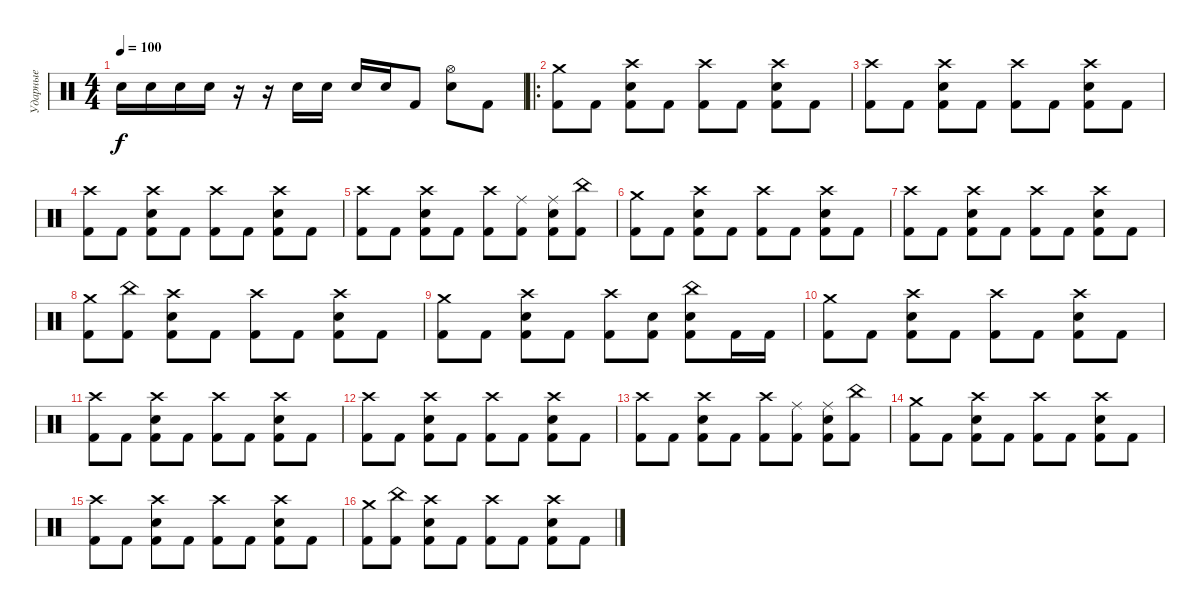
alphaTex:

\track ("Ударные" "Ударные") {instrument percussion}
\staff {score}
\articulation defaults
\ts (4 4)
\tempo 100
\clef neutral
\ks c "Electric Snare (hit)".16{dy f} "Electric Snare (hit)".16 "Electric Snare (hit)".16 "Electric Snare (hit)".16
r.16 r.16 "Electric Snare (hit)".16 "Electric Snare (hit)".16 "Electric Snare (hit)".16 "Electric Snare (hit)".16 "Kick (hit) 2".8 ("Hi-Hat (open)" "Electric Snare (hit)").8 "Kick (hit) 2".8 |
\ro
("Crash medium (hit)" "Kick (hit) 2").8 "Kick (hit) 2".8 ("Crash high (hit)" "Electric Snare (hit)" "Kick (hit) 2").8 "Kick (hit) 2".8 ("Crash high (hit)" "Kick (hit) 2").8 "Kick (hit) 2".8 ("Crash high (hit)" "Electric Snare (hit)" "Kick (hit) 2").8 "Kick (hit) 2".8 |
("Crash high (hit)" "Kick (hit) 2").8 "Kick (hit) 2".8 ("Crash high (hit)" "Electric Snare (hit)" "Kick (hit) 2").8 "Kick (hit) 2".8 ("Crash high (hit)" "Kick (hit) 2").8 "Kick (hit) 2".8 ("Crash high (hit)" "Electric Snare (hit)" "Kick (hit) 2").8 "Kick (hit) 2".8 |
("Crash high (hit)" "Kick (hit) 2").8 "Kick (hit) 2".8 ("Crash high (hit)" "Electric Snare (hit)" "Kick (hit) 2").8 "Kick (hit) 2".8 ("Crash high (hit)" "Kick (hit) 2").8 "Kick (hit) 2".8 ("Crash high (hit)" "Electric Snare (hit)" "Kick (hit) 2").8 "Kick (hit) 2".8 |
("Crash high (hit)" "Kick (hit) 2").8 "Kick (hit) 2".8 ("Crash high (hit)" "Electric Snare (hit)" "Kick (hit) 2").8 "Kick (hit) 2".8 ("Crash high (hit)" "Kick (hit) 2").8 ("Ride (middle)" "Kick (hit) 2").8 ("Ride (middle)" "Electric Snare (hit)" "Kick (hit) 2").8 ("China (hit)" "Kick (hit) 2").8 |
("Crash medium (hit)" "Kick (hit) 2").8 "Kick (hit) 2".8 ("Crash high (hit)" "Electric Snare (hit)" "Kick (hit) 2").8 "Kick (hit) 2".8 ("Crash high (hit)" "Kick (hit) 2").8 "Kick (hit) 2".8 ("Crash high (hit)" "Electric Snare (hit)" "Kick (hit) 2").8 "Kick (hit) 2".8 |
("Crash high (hit)" "Kick (hit) 2").8 "Kick (hit) 2".8 ("Crash high (hit)" "Electric Snare (hit)" "Kick (hit) 2").8 "Kick (hit) 2".8 ("Crash high (hit)" "Kick (hit) 2").8 "Kick (hit) 2".8 ("Crash high (hit)" "Electric Snare (hit)" "Kick (hit) 2").8 "Kick (hit) 2".8 |
("Crash medium (hit)" "Kick (hit) 2").8 ("China (hit)" "Kick (hit) 2").8 ("Crash high (hit)" "Electric Snare (hit)" "Kick (hit) 2").8 "Kick (hit) 2".8 ("Crash high (hit)" "Kick (hit) 2").8 "Kick (hit) 2".8 ("Crash high (hit)" "Electric Snare (hit)" "Kick (hit) 2").8 "Kick (hit) 2".8 |
("Crash medium (hit)" "Kick (hit) 2").8 "Kick (hit) 2".8 ("Crash high (hit)" "Electric Snare (hit)" "Kick (hit) 2").8 "Kick (hit) 2".8 ("Crash high (hit)" "Kick (hit) 2").8 ("Electric Snare (hit)" "Kick (hit) 2").8 ("China (hit)" "Electric Snare (hit)" "Kick (hit) 2").8 "Kick (hit) 2".16 "Kick (hit) 2".16 |
("Crash medium (hit)" "Kick (hit) 2").8 "Kick (hit) 2".8 ("Crash high (hit)" "Electric Snare (hit)" "Kick (hit) 2").8 "Kick (hit) 2".8 ("Crash high (hit)" "Kick (hit) 2").8 "Kick (hit) 2".8 ("Crash high (hit)" "Electric Snare (hit)" "Kick (hit) 2").8 "Kick (hit) 2".8 |
("Crash high (hit)" "Kick (hit) 2").8 "Kick (hit) 2".8 ("Crash high (hit)" "Electric Snare (hit)" "Kick (hit) 2").8 "Kick (hit) 2".8 ("Crash high (hit)" "Kick (hit) 2").8 "Kick (hit) 2".8 ("Crash high (hit)" "Electric Snare (hit)" "Kick (hit) 2").8 "Kick (hit) 2".8 |
("Crash high (hit)" "Kick (hit) 2").8 "Kick (hit) 2".8 ("Crash high (hit)" "Electric Snare (hit)" "Kick (hit) 2").8 "Kick (hit) 2".8 ("Crash high (hit)" "Kick (hit) 2").8 "Kick (hit) 2".8 ("Crash high (hit)" "Electric Snare (hit)" "Kick (hit) 2").8 "Kick (hit) 2".8 |
("Crash high (hit)" "Kick (hit) 2").8 "Kick (hit) 2".8 ("Crash high (hit)" "Electric Snare (hit)" "Kick (hit) 2").8 "Kick (hit) 2".8 ("Crash high (hit)" "Kick (hit) 2").8 ("Ride (middle)" "Kick (hit) 2").8 ("Ride (middle)" "Electric Snare (hit)" "Kick (hit) 2").8 ("China (hit)" "Kick (hit) 2").8 |
("Crash medium (hit)" "Kick (hit) 2").8 "Kick (hit) 2".8 ("Crash high (hit)" "Electric Snare (hit)" "Kick (hit) 2").8 "Kick (hit) 2".8 ("Crash high (hit)" "Kick (hit) 2").8 "Kick (hit) 2".8 ("Crash high (hit)" "Electric Snare (hit)" "Kick (hit) 2").8 "Kick (hit) 2".8 |
("Crash high (hit)" "Kick (hit) 2").8 "Kick (hit) 2".8 ("Crash high (hit)" "Electric Snare (hit)" "Kick (hit) 2").8 "Kick (hit) 2".8 ("Crash high (hit)" "Kick (hit) 2").8 "Kick (hit) 2".8 ("Crash high (hit)" "Electric Snare (hit)" "Kick (hit) 2").8 "Kick (hit) 2".8 |
("Crash medium (hit)" "Kick (hit) 2").8 ("China (hit)" "Kick (hit) 2").8 ("Crash high (hit)" "Electric Snare (hit)" "Kick (hit) 2").8 "Kick (hit) 2".8 ("Crash high (hit)" "Kick (hit) 2").8 "Kick (hit) 2".8 ("Crash high (hit)" "Electric Snare (hit)" "Kick (hit) 2").8 "Kick (hit) 2".8
